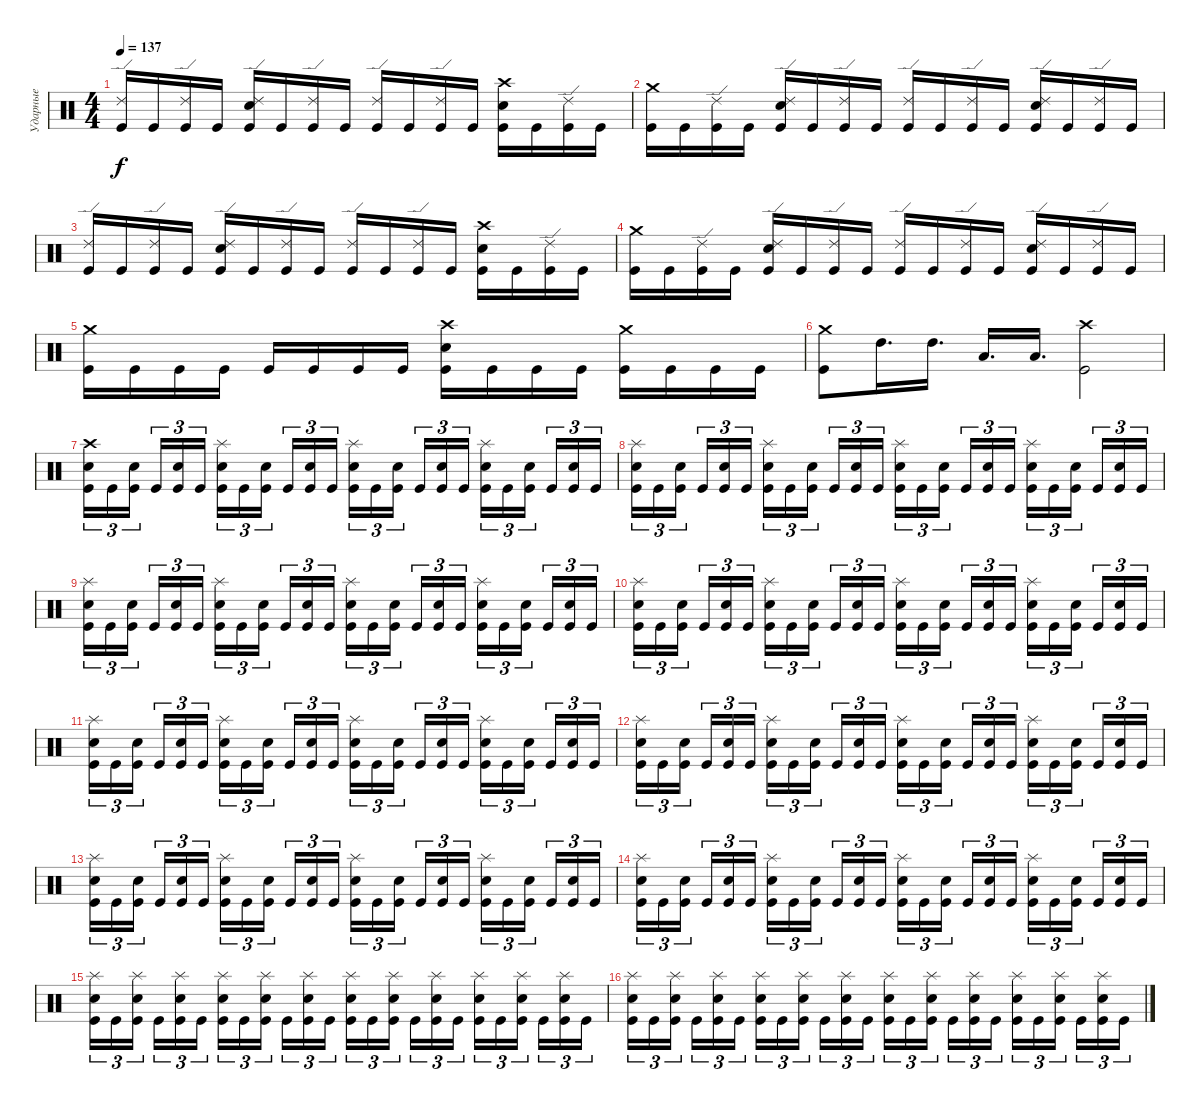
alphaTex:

\track ("Ударные" "Ударные") {instrument percussion}
\staff {score}
\articulation defaults
\ts (4 4)
\tempo 137
\clef neutral
\ks c
("Ride (edge) 2" "Kick (hit)").16{dy f} "Kick (hit)".16 ("Ride (edge) 2" "Kick (hit)").16 "Kick (hit)".16 ("Ride (edge) 2" "Electric Snare (hit)" "Kick (hit)").16 "Kick (hit)".16 ("Ride (edge) 2" "Kick (hit)").16 "Kick (hit)".16 ("Ride (edge) 2" "Kick (hit)").16 "Kick (hit)".16 ("Ride (edge) 2" "Kick (hit)").16 "Kick (hit)".16 ("Crash high (hit)" "Electric Snare (hit)" "Kick (hit)").16 "Kick (hit)".16 ("Ride (edge) 2" "Kick (hit)").16 "Kick (hit)".16 |
("Crash medium (hit)" "Kick (hit)").16 "Kick (hit)".16 ("Ride (edge) 2" "Kick (hit)").16 "Kick (hit)".16 ("Ride (edge) 2" "Electric Snare (hit)" "Kick (hit)").16 "Kick (hit)".16 ("Ride (edge) 2" "Kick (hit)").16 "Kick (hit)".16 ("Ride (edge) 2" "Kick (hit)").16 "Kick (hit)".16 ("Ride (edge) 2" "Kick (hit)").16 "Kick (hit)".16 ("Ride (edge) 2" "Electric Snare (hit)" "Kick (hit)").16 "Kick (hit)".16 ("Ride (edge) 2" "Kick (hit)").16 "Kick (hit)".16 |
("Ride (edge) 2" "Kick (hit)").16 "Kick (hit)".16 ("Ride (edge) 2" "Kick (hit)").16 "Kick (hit)".16 ("Ride (edge) 2" "Electric Snare (hit)" "Kick (hit)").16 "Kick (hit)".16 ("Ride (edge) 2" "Kick (hit)").16 "Kick (hit)".16 ("Ride (edge) 2" "Kick (hit)").16 "Kick (hit)".16 ("Ride (edge) 2" "Kick (hit)").16 "Kick (hit)".16 ("Crash high (hit)" "Electric Snare (hit)" "Kick (hit)").16 "Kick (hit)".16 ("Ride (edge) 2" "Kick (hit)").16 "Kick (hit)".16 |
("Crash medium (hit)" "Kick (hit)").16 "Kick (hit)".16 ("Ride (edge) 2" "Kick (hit)").16 "Kick (hit)".16 ("Ride (edge) 2" "Electric Snare (hit)" "Kick (hit)").16 "Kick (hit)".16 ("Ride (edge) 2" "Kick (hit)").16 "Kick (hit)".16 ("Ride (edge) 2" "Kick (hit)").16 "Kick (hit)".16 ("Ride (edge) 2" "Kick (hit)").16 "Kick (hit)".16 ("Ride (edge) 2" "Electric Snare (hit)" "Kick (hit)").16 "Kick (hit)".16 ("Ride (edge) 2" "Kick (hit)").16 "Kick (hit)".16 |
("Crash medium (hit)" "Kick (hit)").16 "Kick (hit)".16 "Kick (hit)".16 "Kick (hit)".16 "Kick (hit)".16 "Kick (hit)".16 "Kick (hit)".16 "Kick (hit)".16 ("Crash high (hit)" "Electric Snare (hit)" "Kick (hit)").16 "Kick (hit)".16 "Kick (hit)".16 "Kick (hit)".16 ("Crash medium (hit)" "Kick (hit)").16 "Kick (hit)".16 "Kick (hit)".16 "Kick (hit)".16 |
("Crash medium (hit)" "Kick (hit)").8 "High Tom (hit)".16{d} "High Tom (hit)".16{d} "Low Tom (hit)".16{d} "Low Tom (hit)".16{d} ("Crash high (hit)" "Kick (hit)").2 |
("Crash high (hit)" "Electric Snare (hit)" "Kick (hit)").16{tu (3 2)} "Kick (hit)".16{tu (3 2)} ("Electric Snare (hit)" "Kick (hit)").16{tu (3 2) beam splitsecondary} "Kick (hit)".16{tu (3 2)} ("Electric Snare (hit)" "Kick (hit)").16{tu (3 2)} "Kick (hit)".16{tu (3 2)} ("Splash (hit)" "Electric Snare (hit)" "Kick (hit)").16{tu (3 2)} "Kick (hit)".16{tu (3 2)} ("Electric Snare (hit)" "Kick (hit)").16{tu (3 2) beam splitsecondary} "Kick (hit)".16{tu (3 2)} ("Electric Snare (hit)" "Kick (hit)").16{tu (3 2)} "Kick (hit)".16{tu (3 2)} ("Splash (hit)" "Electric Snare (hit)" "Kick (hit)").16{tu (3 2)} "Kick (hit)".16{tu (3 2)} ("Electric Snare (hit)" "Kick (hit)").16{tu (3 2) beam splitsecondary} "Kick (hit)".16{tu (3 2)} ("Electric Snare (hit)" "Kick (hit)").16{tu (3 2)} "Kick (hit)".16{tu (3 2)} ("Splash (hit)" "Electric Snare (hit)" "Kick (hit)").16{tu (3 2)} "Kick (hit)".16{tu (3 2)} ("Electric Snare (hit)" "Kick (hit)").16{tu (3 2) beam splitsecondary} "Kick (hit)".16{tu (3 2)} ("Electric Snare (hit)" "Kick (hit)").16{tu (3 2)} "Kick (hit)".16{tu (3 2)} |
("Splash (hit)" "Electric Snare (hit)" "Kick (hit)").16{tu (3 2)} "Kick (hit)".16{tu (3 2)} ("Electric Snare (hit)" "Kick (hit)").16{tu (3 2) beam splitsecondary} "Kick (hit)".16{tu (3 2)} ("Electric Snare (hit)" "Kick (hit)").16{tu (3 2)} "Kick (hit)".16{tu (3 2)} ("Splash (hit)" "Electric Snare (hit)" "Kick (hit)").16{tu (3 2)} "Kick (hit)".16{tu (3 2)} ("Electric Snare (hit)" "Kick (hit)").16{tu (3 2) beam splitsecondary} "Kick (hit)".16{tu (3 2)} ("Electric Snare (hit)" "Kick (hit)").16{tu (3 2)} "Kick (hit)".16{tu (3 2)} ("Splash (hit)" "Electric Snare (hit)" "Kick (hit)").16{tu (3 2)} "Kick (hit)".16{tu (3 2)} ("Electric Snare (hit)" "Kick (hit)").16{tu (3 2) beam splitsecondary} "Kick (hit)".16{tu (3 2)} ("Electric Snare (hit)" "Kick (hit)").16{tu (3 2)} "Kick (hit)".16{tu (3 2)} ("Splash (hit)" "Electric Snare (hit)" "Kick (hit)").16{tu (3 2)} "Kick (hit)".16{tu (3 2)} ("Electric Snare (hit)" "Kick (hit)").16{tu (3 2) beam splitsecondary} "Kick (hit)".16{tu (3 2)} ("Electric Snare (hit)" "Kick (hit)").16{tu (3 2)} "Kick (hit)".16{tu (3 2)} |
("Splash (hit)" "Electric Snare (hit)" "Kick (hit)").16{tu (3 2)} "Kick (hit)".16{tu (3 2)} ("Electric Snare (hit)" "Kick (hit)").16{tu (3 2) beam splitsecondary} "Kick (hit)".16{tu (3 2)} ("Electric Snare (hit)" "Kick (hit)").16{tu (3 2)} "Kick (hit)".16{tu (3 2)} ("Splash (hit)" "Electric Snare (hit)" "Kick (hit)").16{tu (3 2)} "Kick (hit)".16{tu (3 2)} ("Electric Snare (hit)" "Kick (hit)").16{tu (3 2) beam splitsecondary} "Kick (hit)".16{tu (3 2)} ("Electric Snare (hit)" "Kick (hit)").16{tu (3 2)} "Kick (hit)".16{tu (3 2)} ("Splash (hit)" "Electric Snare (hit)" "Kick (hit)").16{tu (3 2)} "Kick (hit)".16{tu (3 2)} ("Electric Snare (hit)" "Kick (hit)").16{tu (3 2) beam splitsecondary} "Kick (hit)".16{tu (3 2)} ("Electric Snare (hit)" "Kick (hit)").16{tu (3 2)} "Kick (hit)".16{tu (3 2)} ("Splash (hit)" "Electric Snare (hit)" "Kick (hit)").16{tu (3 2)} "Kick (hit)".16{tu (3 2)} ("Electric Snare (hit)" "Kick (hit)").16{tu (3 2) beam splitsecondary} "Kick (hit)".16{tu (3 2)} ("Electric Snare (hit)" "Kick (hit)").16{tu (3 2)} "Kick (hit)".16{tu (3 2)} |
("Splash (hit)" "Electric Snare (hit)" "Kick (hit)").16{tu (3 2)} "Kick (hit)".16{tu (3 2)} ("Electric Snare (hit)" "Kick (hit)").16{tu (3 2) beam splitsecondary} "Kick (hit)".16{tu (3 2)} ("Electric Snare (hit)" "Kick (hit)").16{tu (3 2)} "Kick (hit)".16{tu (3 2)} ("Splash (hit)" "Electric Snare (hit)" "Kick (hit)").16{tu (3 2)} "Kick (hit)".16{tu (3 2)} ("Electric Snare (hit)" "Kick (hit)").16{tu (3 2) beam splitsecondary} "Kick (hit)".16{tu (3 2)} ("Electric Snare (hit)" "Kick (hit)").16{tu (3 2)} "Kick (hit)".16{tu (3 2)} ("Splash (hit)" "Electric Snare (hit)" "Kick (hit)").16{tu (3 2)} "Kick (hit)".16{tu (3 2)} ("Electric Snare (hit)" "Kick (hit)").16{tu (3 2) beam splitsecondary} "Kick (hit)".16{tu (3 2)} ("Electric Snare (hit)" "Kick (hit)").16{tu (3 2)} "Kick (hit)".16{tu (3 2)} ("Splash (hit)" "Electric Snare (hit)" "Kick (hit)").16{tu (3 2)} "Kick (hit)".16{tu (3 2)} ("Electric Snare (hit)" "Kick (hit)").16{tu (3 2) beam splitsecondary} "Kick (hit)".16{tu (3 2)} ("Electric Snare (hit)" "Kick (hit)").16{tu (3 2)} "Kick (hit)".16{tu (3 2)} |
("Splash (hit)" "Electric Snare (hit)" "Kick (hit)").16{tu (3 2)} "Kick (hit)".16{tu (3 2)} ("Electric Snare (hit)" "Kick (hit)").16{tu (3 2) beam splitsecondary} "Kick (hit)".16{tu (3 2)} ("Electric Snare (hit)" "Kick (hit)").16{tu (3 2)} "Kick (hit)".16{tu (3 2)} ("Splash (hit)" "Electric Snare (hit)" "Kick (hit)").16{tu (3 2)} "Kick (hit)".16{tu (3 2)} ("Electric Snare (hit)" "Kick (hit)").16{tu (3 2) beam splitsecondary} "Kick (hit)".16{tu (3 2)} ("Electric Snare (hit)" "Kick (hit)").16{tu (3 2)} "Kick (hit)".16{tu (3 2)} ("Splash (hit)" "Electric Snare (hit)" "Kick (hit)").16{tu (3 2)} "Kick (hit)".16{tu (3 2)} ("Electric Snare (hit)" "Kick (hit)").16{tu (3 2) beam splitsecondary} "Kick (hit)".16{tu (3 2)} ("Electric Snare (hit)" "Kick (hit)").16{tu (3 2)} "Kick (hit)".16{tu (3 2)} ("Splash (hit)" "Electric Snare (hit)" "Kick (hit)").16{tu (3 2)} "Kick (hit)".16{tu (3 2)} ("Electric Snare (hit)" "Kick (hit)").16{tu (3 2) beam splitsecondary} "Kick (hit)".16{tu (3 2)} ("Electric Snare (hit)" "Kick (hit)").16{tu (3 2)} "Kick (hit)".16{tu (3 2)} |
("Splash (hit)" "Electric Snare (hit)" "Kick (hit)").16{tu (3 2)} "Kick (hit)".16{tu (3 2)} ("Electric Snare (hit)" "Kick (hit)").16{tu (3 2) beam splitsecondary} "Kick (hit)".16{tu (3 2)} ("Electric Snare (hit)" "Kick (hit)").16{tu (3 2)} "Kick (hit)".16{tu (3 2)} ("Splash (hit)" "Electric Snare (hit)" "Kick (hit)").16{tu (3 2)} "Kick (hit)".16{tu (3 2)} ("Electric Snare (hit)" "Kick (hit)").16{tu (3 2) beam splitsecondary} "Kick (hit)".16{tu (3 2)} ("Electric Snare (hit)" "Kick (hit)").16{tu (3 2)} "Kick (hit)".16{tu (3 2)} ("Splash (hit)" "Electric Snare (hit)" "Kick (hit)").16{tu (3 2)} "Kick (hit)".16{tu (3 2)} ("Electric Snare (hit)" "Kick (hit)").16{tu (3 2) beam splitsecondary} "Kick (hit)".16{tu (3 2)} ("Electric Snare (hit)" "Kick (hit)").16{tu (3 2)} "Kick (hit)".16{tu (3 2)} ("Splash (hit)" "Electric Snare (hit)" "Kick (hit)").16{tu (3 2)} "Kick (hit)".16{tu (3 2)} ("Electric Snare (hit)" "Kick (hit)").16{tu (3 2) beam splitsecondary} "Kick (hit)".16{tu (3 2)} ("Electric Snare (hit)" "Kick (hit)").16{tu (3 2)} "Kick (hit)".16{tu (3 2)} |
("Splash (hit)" "Electric Snare (hit)" "Kick (hit)").16{tu (3 2)} "Kick (hit)".16{tu (3 2)} ("Electric Snare (hit)" "Kick (hit)").16{tu (3 2) beam splitsecondary} "Kick (hit)".16{tu (3 2)} ("Electric Snare (hit)" "Kick (hit)").16{tu (3 2)} "Kick (hit)".16{tu (3 2)} ("Splash (hit)" "Electric Snare (hit)" "Kick (hit)").16{tu (3 2)} "Kick (hit)".16{tu (3 2)} ("Electric Snare (hit)" "Kick (hit)").16{tu (3 2) beam splitsecondary} "Kick (hit)".16{tu (3 2)} ("Electric Snare (hit)" "Kick (hit)").16{tu (3 2)} "Kick (hit)".16{tu (3 2)} ("Splash (hit)" "Electric Snare (hit)" "Kick (hit)").16{tu (3 2)} "Kick (hit)".16{tu (3 2)} ("Electric Snare (hit)" "Kick (hit)").16{tu (3 2) beam splitsecondary} "Kick (hit)".16{tu (3 2)} ("Electric Snare (hit)" "Kick (hit)").16{tu (3 2)} "Kick (hit)".16{tu (3 2)} ("Splash (hit)" "Electric Snare (hit)" "Kick (hit)").16{tu (3 2)} "Kick (hit)".16{tu (3 2)} ("Electric Snare (hit)" "Kick (hit)").16{tu (3 2) beam splitsecondary} "Kick (hit)".16{tu (3 2)} ("Electric Snare (hit)" "Kick (hit)").16{tu (3 2)} "Kick (hit)".16{tu (3 2)} |
("Splash (hit)" "Electric Snare (hit)" "Kick (hit)").16{tu (3 2)} "Kick (hit)".16{tu (3 2)} ("Electric Snare (hit)" "Kick (hit)").16{tu (3 2) beam splitsecondary} "Kick (hit)".16{tu (3 2)} ("Electric Snare (hit)" "Kick (hit)").16{tu (3 2)} "Kick (hit)".16{tu (3 2)} ("Splash (hit)" "Electric Snare (hit)" "Kick (hit)").16{tu (3 2)} "Kick (hit)".16{tu (3 2)} ("Electric Snare (hit)" "Kick (hit)").16{tu (3 2) beam splitsecondary} "Kick (hit)".16{tu (3 2)} ("Electric Snare (hit)" "Kick (hit)").16{tu (3 2)} "Kick (hit)".16{tu (3 2)} ("Splash (hit)" "Electric Snare (hit)" "Kick (hit)").16{tu (3 2)} "Kick (hit)".16{tu (3 2)} ("Electric Snare (hit)" "Kick (hit)").16{tu (3 2) beam splitsecondary} "Kick (hit)".16{tu (3 2)} ("Electric Snare (hit)" "Kick (hit)").16{tu (3 2)} "Kick (hit)".16{tu (3 2)} ("Splash (hit)" "Electric Snare (hit)" "Kick (hit)").16{tu (3 2)} "Kick (hit)".16{tu (3 2)} ("Electric Snare (hit)" "Kick (hit)").16{tu (3 2) beam splitsecondary} "Kick (hit)".16{tu (3 2)} ("Electric Snare (hit)" "Kick (hit)").16{tu (3 2)} "Kick (hit)".16{tu (3 2)} |
("Splash (hit)" "Electric Snare (hit)" "Kick (hit)").16{tu (3 2)} "Kick (hit)".16{tu (3 2)} ("Splash (hit)" "Electric Snare (hit)" "Kick (hit)").16{tu (3 2) beam splitsecondary} "Kick (hit)".16{tu (3 2)} ("Splash (hit)" "Electric Snare (hit)" "Kick (hit)").16{tu (3 2)} "Kick (hit)".16{tu (3 2)} ("Splash (hit)" "Electric Snare (hit)" "Kick (hit)").16{tu (3 2)} "Kick (hit)".16{tu (3 2)} ("Splash (hit)" "Electric Snare (hit)" "Kick (hit)").16{tu (3 2) beam splitsecondary} "Kick (hit)".16{tu (3 2)} ("Splash (hit)" "Electric Snare (hit)" "Kick (hit)").16{tu (3 2)} "Kick (hit)".16{tu (3 2)} ("Splash (hit)" "Electric Snare (hit)" "Kick (hit)").16{tu (3 2)} "Kick (hit)".16{tu (3 2)} ("Splash (hit)" "Electric Snare (hit)" "Kick (hit)").16{tu (3 2) beam splitsecondary} "Kick (hit)".16{tu (3 2)} ("Splash (hit)" "Electric Snare (hit)" "Kick (hit)").16{tu (3 2)} "Kick (hit)".16{tu (3 2)} ("Splash (hit)" "Electric Snare (hit)" "Kick (hit)").16{tu (3 2)} "Kick (hit)".16{tu (3 2)} ("Splash (hit)" "Electric Snare (hit)" "Kick (hit)").16{tu (3 2) beam splitsecondary} "Kick (hit)".16{tu (3 2)} ("Splash (hit)" "Electric Snare (hit)" "Kick (hit)").16{tu (3 2)} "Kick (hit)".16{tu (3 2)} |
("Splash (hit)" "Electric Snare (hit)" "Kick (hit)").16{tu (3 2)} "Kick (hit)".16{tu (3 2)} ("Splash (hit)" "Electric Snare (hit)" "Kick (hit)").16{tu (3 2) beam splitsecondary} "Kick (hit)".16{tu (3 2)} ("Splash (hit)" "Electric Snare (hit)" "Kick (hit)").16{tu (3 2)} "Kick (hit)".16{tu (3 2)} ("Splash (hit)" "Electric Snare (hit)" "Kick (hit)").16{tu (3 2)} "Kick (hit)".16{tu (3 2)} ("Splash (hit)" "Electric Snare (hit)" "Kick (hit)").16{tu (3 2) beam splitsecondary} "Kick (hit)".16{tu (3 2)} ("Splash (hit)" "Electric Snare (hit)" "Kick (hit)").16{tu (3 2)} "Kick (hit)".16{tu (3 2)} ("Splash (hit)" "Electric Snare (hit)" "Kick (hit)").16{tu (3 2)} "Kick (hit)".16{tu (3 2)} ("Splash (hit)" "Electric Snare (hit)" "Kick (hit)").16{tu (3 2) beam splitsecondary} "Kick (hit)".16{tu (3 2)} ("Splash (hit)" "Electric Snare (hit)" "Kick (hit)").16{tu (3 2)} "Kick (hit)".16{tu (3 2)} ("Splash (hit)" "Electric Snare (hit)" "Kick (hit)").16{tu (3 2)} "Kick (hit)".16{tu (3 2)} ("Splash (hit)" "Electric Snare (hit)" "Kick (hit)").16{tu (3 2) beam splitsecondary} "Kick (hit)".16{tu (3 2)} ("Splash (hit)" "Electric Snare (hit)" "Kick (hit)").16{tu (3 2)} "Kick (hit)".16{tu (3 2)}
